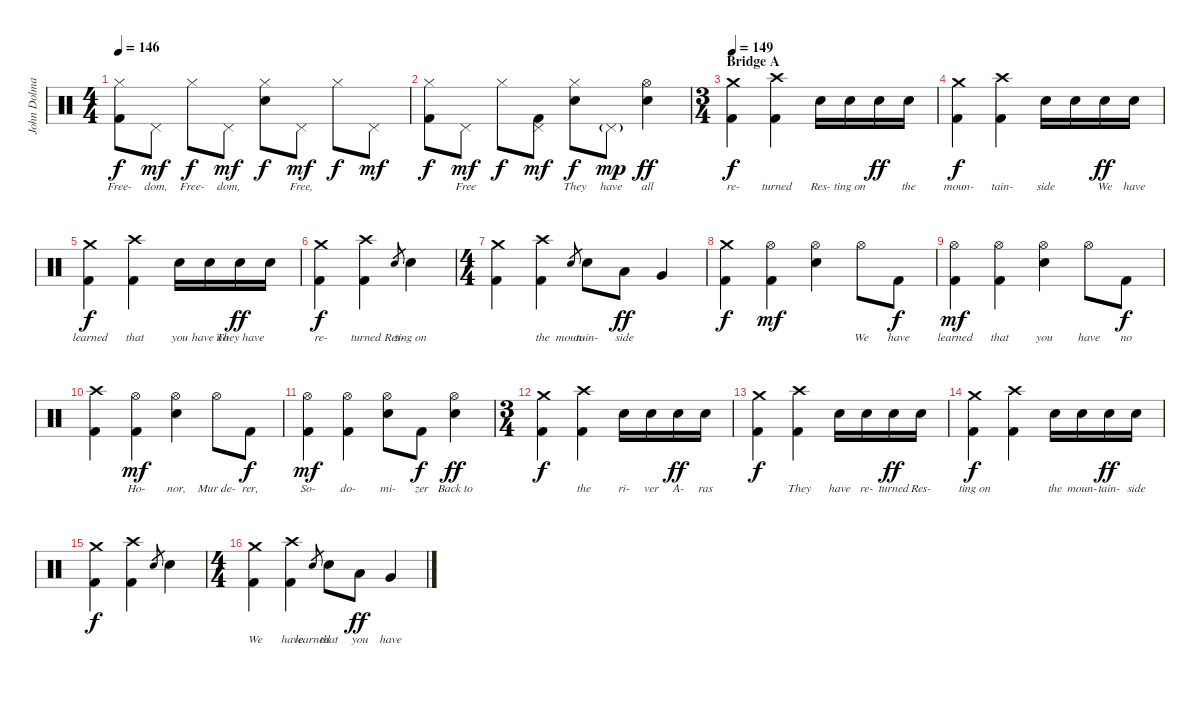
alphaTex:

\track ("John Dolmayan" "John Dolma") {instrument percussion}
\staff {score}
\articulation defaults
\ts (4 4)
\tempo 146
\clef neutral
\ks c
("Hi-Hat (closed)" "Kick (hit) 2").8{lyrics (0 "Free-") lyrics (1 "") lyrics (2 "") lyrics (3 "") lyrics (4 "") dy f} "Pedal Hi-Hat (hit)".8{lyrics (0 "dom,") lyrics (1 "") lyrics (2 "") lyrics (3 "") lyrics (4 "") dy mf} "Hi-Hat (closed)".8{lyrics (0 "Free-") lyrics (1 "") lyrics (2 "") lyrics (3 "") lyrics (4 "") dy f} "Pedal Hi-Hat (hit)".8{lyrics (0 "dom,") lyrics (1 "") lyrics (2 "") lyrics (3 "") lyrics (4 "") dy mf} ("Hi-Hat (closed)" "Electric Snare (hit)").8{lyrics (0 "") lyrics (1 "") lyrics (2 "") lyrics (3 "") lyrics (4 "") dy f} "Pedal Hi-Hat (hit)".8{lyrics (0 "Free,") lyrics (1 "") lyrics (2 "") lyrics (3 "") lyrics (4 "") dy mf} "Hi-Hat (closed)".8{lyrics (0 "") lyrics (1 "") lyrics (2 "") lyrics (3 "") lyrics (4 "") dy f} "Pedal Hi-Hat (hit)".8{lyrics (0 "") lyrics (1 "") lyrics (2 "") lyrics (3 "") lyrics (4 "") dy mf} |
("Hi-Hat (closed)" "Kick (hit) 2").8{lyrics (0 "") lyrics (1 "") lyrics (2 "") lyrics (3 "") lyrics (4 "") dy f} "Pedal Hi-Hat (hit)".8{lyrics (0 "Free") lyrics (1 "") lyrics (2 "") lyrics (3 "") lyrics (4 "") dy mf} "Hi-Hat (closed)".8{lyrics (0 "") lyrics (1 "") lyrics (2 "") lyrics (3 "") lyrics (4 "") dy f} ("Pedal Hi-Hat (hit)" "Kick (hit) 2").8{lyrics (0 "") lyrics (1 "") lyrics (2 "") lyrics (3 "") lyrics (4 "") dy mf} ("Hi-Hat (closed)" "Electric Snare (hit)").8{lyrics (0 "They") lyrics (1 "") lyrics (2 "") lyrics (3 "") lyrics (4 "") dy f} "Pedal Hi-Hat (hit)"{g}.8{lyrics (0 "have") lyrics (1 "") lyrics (2 "") lyrics (3 "") lyrics (4 "") dy mp} ("Hi-Hat (open)" "Electric Snare (hit)").4{lyrics (0 "all") lyrics (1 "") lyrics (2 "") lyrics (3 "") lyrics (4 "") dy ff} |
\ts (3 4)
\section ("" "Bridge A")
\tempo 149
("Crash medium (hit)" "Kick (hit) 2").4{lyrics (0 "re-") lyrics (1 "") lyrics (2 "") lyrics (3 "") lyrics (4 "") dy f} ("Crash high (hit)" "Kick (hit) 2").4{lyrics (0 "turned") lyrics (1 "") lyrics (2 "") lyrics (3 "") lyrics (4 "")} "Electric Snare (hit)".16{lyrics (0 "Res-") lyrics (1 "") lyrics (2 "") lyrics (3 "") lyrics (4 "")} "Electric Snare (hit)".16{lyrics (0 "ting on") lyrics (1 "") lyrics (2 "") lyrics (3 "") lyrics (4 "")} "Electric Snare (hit)".16{lyrics (0 "") lyrics (1 "") lyrics (2 "") lyrics (3 "") lyrics (4 "") dy ff} "Electric Snare (hit)".16{lyrics (0 "the") lyrics (1 "") lyrics (2 "") lyrics (3 "") lyrics (4 "")} |
("Crash medium (hit)" "Kick (hit) 2").4{lyrics (0 "moun-") lyrics (1 "") lyrics (2 "") lyrics (3 "") lyrics (4 "") dy f} ("Crash high (hit)" "Kick (hit) 2").4{lyrics (0 "tain-") lyrics (1 "") lyrics (2 "") lyrics (3 "") lyrics (4 "")} "Electric Snare (hit)".16{lyrics (0 "side") lyrics (1 "") lyrics (2 "") lyrics (3 "") lyrics (4 "")} "Electric Snare (hit)".16{lyrics (0 "") lyrics (1 "") lyrics (2 "") lyrics (3 "") lyrics (4 "")} "Electric Snare (hit)".16{lyrics (0 "We") lyrics (1 "") lyrics (2 "") lyrics (3 "") lyrics (4 "") dy ff} "Electric Snare (hit)".16{lyrics (0 "have") lyrics (1 "") lyrics (2 "") lyrics (3 "") lyrics (4 "")} |
("Crash medium (hit)" "Kick (hit) 2").4{lyrics (0 "learned") lyrics (1 "") lyrics (2 "") lyrics (3 "") lyrics (4 "") dy f} ("Crash high (hit)" "Kick (hit) 2").4{lyrics (0 "that") lyrics (1 "") lyrics (2 "") lyrics (3 "") lyrics (4 "")} "Electric Snare (hit)".16{lyrics (0 "you") lyrics (1 "") lyrics (2 "") lyrics (3 "") lyrics (4 "")} "Electric Snare (hit)".16{lyrics (0 "have no") lyrics (1 "") lyrics (2 "") lyrics (3 "") lyrics (4 "")} "Electric Snare (hit)".16{lyrics (0 "They have") lyrics (1 "") lyrics (2 "") lyrics (3 "") lyrics (4 "") dy ff} "Electric Snare (hit)".16{lyrics (0 "") lyrics (1 "") lyrics (2 "") lyrics (3 "") lyrics (4 "")} |
("Crash medium (hit)" "Kick (hit) 2").4{lyrics (0 "re-") lyrics (1 "") lyrics (2 "") lyrics (3 "") lyrics (4 "") dy f} ("Crash high (hit)" "Kick (hit) 2").4{lyrics (0 "turned") lyrics (1 "") lyrics (2 "") lyrics (3 "") lyrics (4 "")} "Electric Snare (hit)".8{lyrics (0 "Res-") lyrics (1 "") lyrics (2 "") lyrics (3 "") lyrics (4 "") gr} "Electric Snare (hit)".4{lyrics (0 "ting on") lyrics (1 "") lyrics (2 "") lyrics (3 "") lyrics (4 "")} |
\ts (4 4)
("Crash medium (hit)" "Kick (hit) 2").4{lyrics (0 "") lyrics (1 "") lyrics (2 "") lyrics (3 "") lyrics (4 "")} ("Crash high (hit)" "Kick (hit) 2").4{lyrics (0 "the") lyrics (1 "") lyrics (2 "") lyrics (3 "") lyrics (4 "")} "Electric Snare (hit)".8{lyrics (0 "moun-") lyrics (1 "") lyrics (2 "") lyrics (3 "") lyrics (4 "") gr} "Electric Snare (hit)".8{lyrics (0 "tain-") lyrics (1 "") lyrics (2 "") lyrics (3 "") lyrics (4 "")} "Low Tom (hit)".8{lyrics (0 "side") lyrics (1 "") lyrics (2 "") lyrics (3 "") lyrics (4 "") dy ff} "Very Low Tom (hit)".4{lyrics (0 "") lyrics (1 "") lyrics (2 "") lyrics (3 "") lyrics (4 "")} |
("Crash medium (hit)" "Kick (hit) 2").4{lyrics (0 "") lyrics (1 "") lyrics (2 "") lyrics (3 "") lyrics (4 "") dy f} ("Hi-Hat (open)" "Kick (hit) 2").4{lyrics (0 "") lyrics (1 "") lyrics (2 "") lyrics (3 "") lyrics (4 "") dy mf} ("Hi-Hat (open)" "Electric Snare (hit)").4{lyrics (0 "") lyrics (1 "") lyrics (2 "") lyrics (3 "") lyrics (4 "")} "Hi-Hat (open)".8{lyrics (0 "We") lyrics (1 "") lyrics (2 "") lyrics (3 "") lyrics (4 "")} "Kick (hit) 2".8{lyrics (0 "have") lyrics (1 "") lyrics (2 "") lyrics (3 "") lyrics (4 "") dy f} |
("Hi-Hat (open)" "Kick (hit) 2").4{lyrics (0 "learned") lyrics (1 "") lyrics (2 "") lyrics (3 "") lyrics (4 "") dy mf} ("Hi-Hat (open)" "Kick (hit) 2").4{lyrics (0 "that") lyrics (1 "") lyrics (2 "") lyrics (3 "") lyrics (4 "")} ("Hi-Hat (open)" "Electric Snare (hit)").4{lyrics (0 "you") lyrics (1 "") lyrics (2 "") lyrics (3 "") lyrics (4 "")} "Hi-Hat (open)".8{lyrics (0 "have") lyrics (1 "") lyrics (2 "") lyrics (3 "") lyrics (4 "")} "Kick (hit) 2".8{lyrics (0 "no") lyrics (1 "") lyrics (2 "") lyrics (3 "") lyrics (4 "") dy f} |
("Crash high (hit)" "Kick (hit) 2").4{lyrics (0 "") lyrics (1 "") lyrics (2 "") lyrics (3 "") lyrics (4 "")} ("Hi-Hat (open)" "Kick (hit) 2").4{lyrics (0 "Ho-") lyrics (1 "") lyrics (2 "") lyrics (3 "") lyrics (4 "") dy mf} ("Hi-Hat (open)" "Electric Snare (hit)").4{lyrics (0 "nor,") lyrics (1 "") lyrics (2 "") lyrics (3 "") lyrics (4 "")} "Hi-Hat (open)".8{lyrics (0 "Mur de-") lyrics (1 "") lyrics (2 "") lyrics (3 "") lyrics (4 "")} "Kick (hit) 2".8{lyrics (0 "rer,") lyrics (1 "") lyrics (2 "") lyrics (3 "") lyrics (4 "") dy f} |
("Hi-Hat (open)" "Kick (hit) 2").4{lyrics (0 "So-") lyrics (1 "") lyrics (2 "") lyrics (3 "") lyrics (4 "") dy mf} ("Hi-Hat (open)" "Kick (hit) 2").4{lyrics (0 "do-") lyrics (1 "") lyrics (2 "") lyrics (3 "") lyrics (4 "")} ("Hi-Hat (open)" "Electric Snare (hit)").8{lyrics (0 "mi-") lyrics (1 "") lyrics (2 "") lyrics (3 "") lyrics (4 "")} "Kick (hit) 2".8{lyrics (0 "zer") lyrics (1 "") lyrics (2 "") lyrics (3 "") lyrics (4 "") dy f} ("Hi-Hat (open)" "Electric Snare (hit)").4{lyrics (0 "Back to") lyrics (1 "") lyrics (2 "") lyrics (3 "") lyrics (4 "") dy ff} |
\ts (3 4)
("Crash medium (hit)" "Kick (hit) 2").4{lyrics (0 "") lyrics (1 "") lyrics (2 "") lyrics (3 "") lyrics (4 "") dy f} ("Crash high (hit)" "Kick (hit) 2").4{lyrics (0 "the") lyrics (1 "") lyrics (2 "") lyrics (3 "") lyrics (4 "")} "Electric Snare (hit)".16{lyrics (0 "ri-") lyrics (1 "") lyrics (2 "") lyrics (3 "") lyrics (4 "")} "Electric Snare (hit)".16{lyrics (0 "ver") lyrics (1 "") lyrics (2 "") lyrics (3 "") lyrics (4 "")} "Electric Snare (hit)".16{lyrics (0 "A-") lyrics (1 "") lyrics (2 "") lyrics (3 "") lyrics (4 "") dy ff} "Electric Snare (hit)".16{lyrics (0 "ras") lyrics (1 "") lyrics (2 "") lyrics (3 "") lyrics (4 "")} |
("Crash medium (hit)" "Kick (hit) 2").4{lyrics (0 "") lyrics (1 "") lyrics (2 "") lyrics (3 "") lyrics (4 "") dy f} ("Crash high (hit)" "Kick (hit) 2").4{lyrics (0 "They") lyrics (1 "") lyrics (2 "") lyrics (3 "") lyrics (4 "")} "Electric Snare (hit)".16{lyrics (0 "have") lyrics (1 "") lyrics (2 "") lyrics (3 "") lyrics (4 "")} "Electric Snare (hit)".16{lyrics (0 "re-") lyrics (1 "") lyrics (2 "") lyrics (3 "") lyrics (4 "")} "Electric Snare (hit)".16{lyrics (0 "turned") lyrics (1 "") lyrics (2 "") lyrics (3 "") lyrics (4 "") dy ff} "Electric Snare (hit)".16{lyrics (0 "Res-") lyrics (1 "") lyrics (2 "") lyrics (3 "") lyrics (4 "")} |
("Crash medium (hit)" "Kick (hit) 2").4{lyrics (0 "ting on") lyrics (1 "") lyrics (2 "") lyrics (3 "") lyrics (4 "") dy f} ("Crash high (hit)" "Kick (hit) 2").4{lyrics (0 "") lyrics (1 "") lyrics (2 "") lyrics (3 "") lyrics (4 "")} "Electric Snare (hit)".16{lyrics (0 "the") lyrics (1 "") lyrics (2 "") lyrics (3 "") lyrics (4 "")} "Electric Snare (hit)".16{lyrics (0 "moun-") lyrics (1 "") lyrics (2 "") lyrics (3 "") lyrics (4 "")} "Electric Snare (hit)".16{lyrics (0 "tain-") lyrics (1 "") lyrics (2 "") lyrics (3 "") lyrics (4 "") dy ff} "Electric Snare (hit)".16{lyrics (0 "side") lyrics (1 "") lyrics (2 "") lyrics (3 "") lyrics (4 "")} |
("Crash medium (hit)" "Kick (hit) 2").4{lyrics (0 "") lyrics (1 "") lyrics (2 "") lyrics (3 "") lyrics (4 "") dy f} ("Crash high (hit)" "Kick (hit) 2").4{lyrics (0 "") lyrics (1 "") lyrics (2 "") lyrics (3 "") lyrics (4 "")} "Electric Snare (hit)".8{lyrics (0 "") lyrics (1 "") lyrics (2 "") lyrics (3 "") lyrics (4 "") gr} "Electric Snare (hit)".4{lyrics (0 "") lyrics (1 "") lyrics (2 "") lyrics (3 "") lyrics (4 "")} |
\ts (4 4)
("Crash medium (hit)" "Kick (hit) 2").4{lyrics (0 "We") lyrics (1 "") lyrics (2 "") lyrics (3 "") lyrics (4 "")} ("Crash high (hit)" "Kick (hit) 2").4{lyrics (0 "have") lyrics (1 "") lyrics (2 "") lyrics (3 "") lyrics (4 "")} "Electric Snare (hit)".8{lyrics (0 "learned") lyrics (1 "") lyrics (2 "") lyrics (3 "") lyrics (4 "") gr} "Electric Snare (hit)".8{lyrics (0 "that") lyrics (1 "") lyrics (2 "") lyrics (3 "") lyrics (4 "")} "Low Tom (hit)".8{lyrics (0 "you") lyrics (1 "") lyrics (2 "") lyrics (3 "") lyrics (4 "") dy ff} "Very Low Tom (hit)".4{lyrics (0 "have") lyrics (1 "") lyrics (2 "") lyrics (3 "") lyrics (4 "")}
